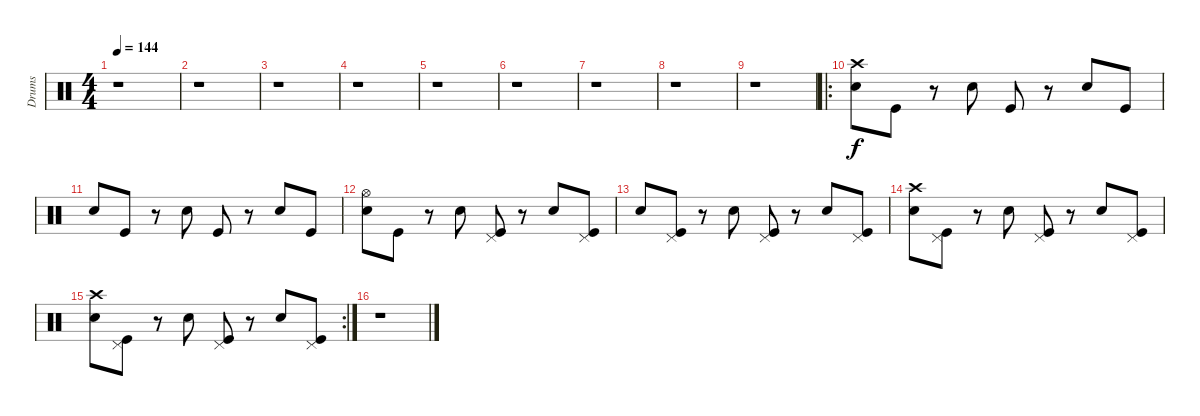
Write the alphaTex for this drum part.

\track ("Drums" "Drums") {instrument percussion}
\staff {score}
\articulation defaults
\ts (4 4)
\tempo 144
\clef neutral
\ks c
r.1{dy f} |
r.1 |
r.1 |
r.1 |
r.1 |
r.1 |
r.1 |
r.1 |
r.1 |
\ro
("Crash high (hit)" "Snare (hit) 2").8 "Kick (hit)".8 r.8 "Snare (hit) 2".8 "Kick (hit)".8 r.8 "Snare (hit) 2".8 "Kick (hit)".8 |
"Snare (hit) 2".8 "Kick (hit)".8 r.8 "Snare (hit) 2".8 "Kick (hit)".8 r.8 "Snare (hit) 2".8 "Kick (hit)".8 |
("Hi-Hat (open)" "Snare (hit) 2").8 "Kick (hit)".8 r.8 "Snare (hit) 2".8 ("Pedal Hi-Hat (hit)" "Kick (hit)").8 r.8 "Snare (hit) 2".8 ("Pedal Hi-Hat (hit)" "Kick (hit)").8 |
"Snare (hit) 2".8 ("Pedal Hi-Hat (hit)" "Kick (hit)").8 r.8 "Snare (hit) 2".8 ("Pedal Hi-Hat (hit)" "Kick (hit)").8 r.8 "Snare (hit) 2".8 ("Pedal Hi-Hat (hit)" "Kick (hit)").8 |
("Crash high (hit)" "Snare (hit) 2").8 ("Pedal Hi-Hat (hit)" "Kick (hit)").8 r.8 "Snare (hit) 2".8 ("Pedal Hi-Hat (hit)" "Kick (hit)").8 r.8 "Snare (hit) 2".8 ("Pedal Hi-Hat (hit)" "Kick (hit)").8 |
\rc 2
("Crash high (hit)" "Snare (hit) 2").8 ("Pedal Hi-Hat (hit)" "Kick (hit)").8 r.8 "Snare (hit) 2".8 ("Pedal Hi-Hat (hit)" "Kick (hit)").8 r.8 "Snare (hit) 2".8 ("Pedal Hi-Hat (hit)" "Kick (hit)").8 |
r.1
